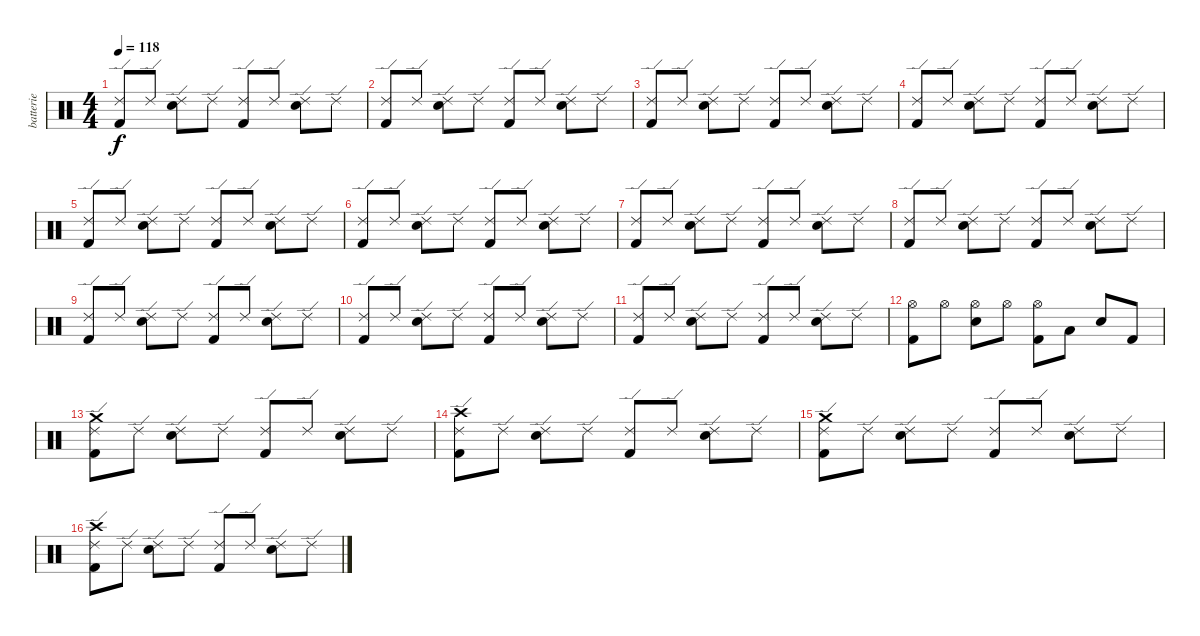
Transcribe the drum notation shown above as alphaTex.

\track ("batterie" "batterie") {instrument percussion}
\staff {score}
\articulation defaults
\ts (4 4)
\tempo 118
\clef neutral
\ks c
("Ride (edge) 2" "Kick (hit) 2").8{dy f} "Ride (edge) 2".8 ("Ride (edge) 2" "Electric Snare (hit)").8 "Ride (edge) 2".8 ("Ride (edge) 2" "Kick (hit) 2").8 "Ride (edge) 2".8 ("Ride (edge) 2" "Electric Snare (hit)").8 "Ride (edge) 2".8 |
("Ride (edge) 2" "Kick (hit) 2").8 "Ride (edge) 2".8 ("Ride (edge) 2" "Electric Snare (hit)").8 "Ride (edge) 2".8 ("Ride (edge) 2" "Kick (hit) 2").8 "Ride (edge) 2".8 ("Ride (edge) 2" "Electric Snare (hit)").8 "Ride (edge) 2".8 |
("Ride (edge) 2" "Kick (hit) 2").8 "Ride (edge) 2".8 ("Ride (edge) 2" "Electric Snare (hit)").8 "Ride (edge) 2".8 ("Ride (edge) 2" "Kick (hit) 2").8 "Ride (edge) 2".8 ("Ride (edge) 2" "Electric Snare (hit)").8 "Ride (edge) 2".8 |
("Ride (edge) 2" "Kick (hit) 2").8 "Ride (edge) 2".8 ("Ride (edge) 2" "Electric Snare (hit)").8 "Ride (edge) 2".8 ("Ride (edge) 2" "Kick (hit) 2").8 "Ride (edge) 2".8 ("Ride (edge) 2" "Electric Snare (hit)").8 "Ride (edge) 2".8 |
("Ride (edge) 2" "Kick (hit) 2").8 "Ride (edge) 2".8 ("Ride (edge) 2" "Electric Snare (hit)").8 "Ride (edge) 2".8 ("Ride (edge) 2" "Kick (hit) 2").8 "Ride (edge) 2".8 ("Ride (edge) 2" "Electric Snare (hit)").8 "Ride (edge) 2".8 |
("Ride (edge) 2" "Kick (hit) 2").8 "Ride (edge) 2".8 ("Ride (edge) 2" "Electric Snare (hit)").8 "Ride (edge) 2".8 ("Ride (edge) 2" "Kick (hit) 2").8 "Ride (edge) 2".8 ("Ride (edge) 2" "Electric Snare (hit)").8 "Ride (edge) 2".8 |
("Ride (edge) 2" "Kick (hit) 2").8 "Ride (edge) 2".8 ("Ride (edge) 2" "Electric Snare (hit)").8 "Ride (edge) 2".8 ("Ride (edge) 2" "Kick (hit) 2").8 "Ride (edge) 2".8 ("Ride (edge) 2" "Electric Snare (hit)").8 "Ride (edge) 2".8 |
("Ride (edge) 2" "Kick (hit) 2").8 "Ride (edge) 2".8 ("Ride (edge) 2" "Electric Snare (hit)").8 "Ride (edge) 2".8 ("Ride (edge) 2" "Kick (hit) 2").8 "Ride (edge) 2".8 ("Ride (edge) 2" "Electric Snare (hit)").8 "Ride (edge) 2".8 |
("Ride (edge) 2" "Kick (hit) 2").8 "Ride (edge) 2".8 ("Ride (edge) 2" "Electric Snare (hit)").8 "Ride (edge) 2".8 ("Ride (edge) 2" "Kick (hit) 2").8 "Ride (edge) 2".8 ("Ride (edge) 2" "Electric Snare (hit)").8 "Ride (edge) 2".8 |
("Ride (edge) 2" "Kick (hit) 2").8 "Ride (edge) 2".8 ("Ride (edge) 2" "Electric Snare (hit)").8 "Ride (edge) 2".8 ("Ride (edge) 2" "Kick (hit) 2").8 "Ride (edge) 2".8 ("Ride (edge) 2" "Electric Snare (hit)").8 "Ride (edge) 2".8 |
("Ride (edge) 2" "Kick (hit) 2").8 "Ride (edge) 2".8 ("Ride (edge) 2" "Electric Snare (hit)").8 "Ride (edge) 2".8 ("Ride (edge) 2" "Kick (hit) 2").8 "Ride (edge) 2".8 ("Ride (edge) 2" "Electric Snare (hit)").8 "Ride (edge) 2".8 |
("Hi-Hat (open)" "Kick (hit) 2").8 "Hi-Hat (open)".8 ("Hi-Hat (open)" "Electric Snare (hit)").8 "Hi-Hat (open)".8 ("Hi-Hat (open)" "Kick (hit) 2").8 "Low Tom (hit)".8 "Electric Snare (hit)".8 "Kick (hit) 2".8 |
("Crash medium (hit)" "Ride (edge) 2" "Kick (hit) 2").8 "Ride (edge) 2".8 ("Ride (edge) 2" "Electric Snare (hit)").8 "Ride (edge) 2".8 ("Ride (edge) 2" "Kick (hit) 2").8 "Ride (edge) 2".8 ("Ride (edge) 2" "Electric Snare (hit)").8 "Ride (edge) 2".8 |
("Crash high (hit)" "Ride (edge) 2" "Kick (hit) 2").8 "Ride (edge) 2".8 ("Ride (edge) 2" "Electric Snare (hit)").8 "Ride (edge) 2".8 ("Ride (edge) 2" "Kick (hit) 2").8 "Ride (edge) 2".8 ("Ride (edge) 2" "Electric Snare (hit)").8 "Ride (edge) 2".8 |
("Crash medium (hit)" "Ride (edge) 2" "Kick (hit) 2").8 "Ride (edge) 2".8 ("Ride (edge) 2" "Electric Snare (hit)").8 "Ride (edge) 2".8 ("Ride (edge) 2" "Kick (hit) 2").8 "Ride (edge) 2".8 ("Ride (edge) 2" "Electric Snare (hit)").8 "Ride (edge) 2".8 |
("Crash high (hit)" "Ride (edge) 2" "Kick (hit) 2").8 "Ride (edge) 2".8 ("Ride (edge) 2" "Electric Snare (hit)").8 "Ride (edge) 2".8 ("Ride (edge) 2" "Kick (hit) 2").8 "Ride (edge) 2".8 ("Ride (edge) 2" "Electric Snare (hit)").8 "Ride (edge) 2".8
